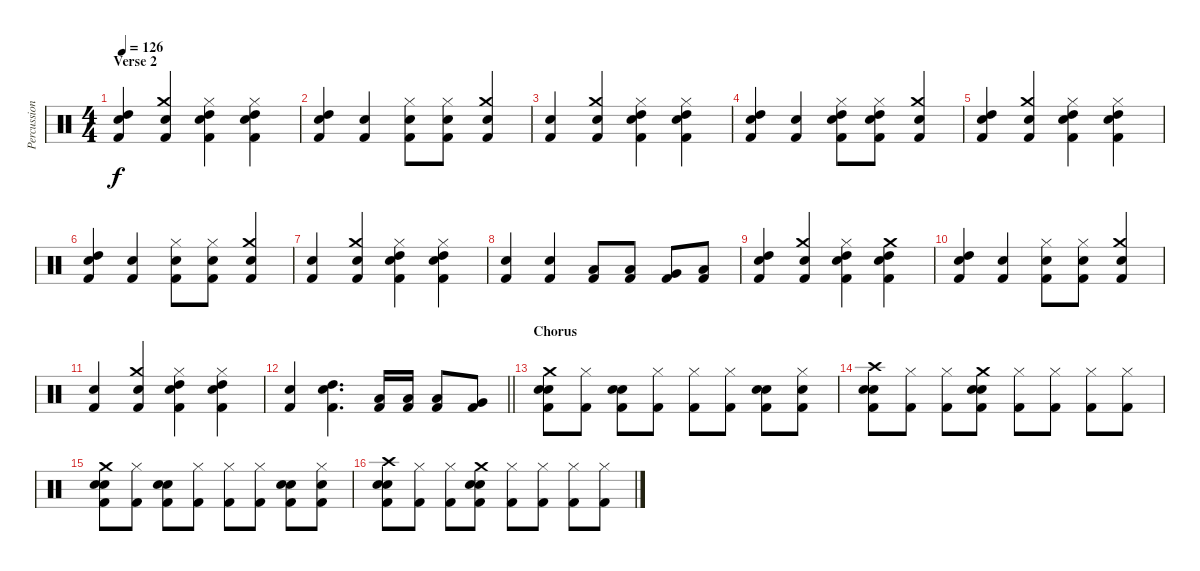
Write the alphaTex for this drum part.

\track ("Percussion" "Percussion") {instrument percussion}
\staff {score}
\articulation defaults
\ts (4 4)
\section ("" "Verse 2")
\tempo 126
\clef neutral
\ks c
("High Tom (hit)" "Electric Snare (hit)" "Kick (hit) 2").4{dy f} ("Crash medium (hit)" "Snare (hit) 2" "Kick (hit) 2").4 ("High Tom (hit)" "Hi-Hat (closed)" "Electric Snare (hit)" "Kick (hit) 2").4 ("High Tom (hit)" "Hi-Hat (closed)" "Snare (hit) 2" "Kick (hit) 2").4 |
("High Tom (hit)" "Electric Snare (hit)" "Kick (hit) 2").4 ("Snare (hit) 2" "Kick (hit) 2").4 ("Hi-Hat (closed)" "Electric Snare (hit)" "Kick (hit) 2").8 ("Hi-Hat (closed)" "Snare (hit) 2" "Kick (hit) 2").8 ("Crash medium (hit)" "Snare (hit) 2" "Kick (hit) 2").4 |
("Electric Snare (hit)" "Kick (hit) 2").4 ("Crash medium (hit)" "Snare (hit) 2" "Kick (hit) 2").4 ("High Tom (hit)" "Hi-Hat (closed)" "Electric Snare (hit)" "Kick (hit) 2").4 ("High Tom (hit)" "Hi-Hat (closed)" "Snare (hit) 2" "Kick (hit) 2").4 |
("High Tom (hit)" "Electric Snare (hit)" "Kick (hit) 2").4 ("Snare (hit) 2" "Kick (hit) 2").4 ("High Tom (hit)" "Hi-Hat (closed)" "Electric Snare (hit)" "Kick (hit) 2").8 ("High Tom (hit)" "Hi-Hat (closed)" "Snare (hit) 2" "Kick (hit) 2").8 ("Crash medium (hit)" "Snare (hit) 2" "Kick (hit) 2").4 |
("High Tom (hit)" "Electric Snare (hit)" "Kick (hit) 2").4 ("Crash medium (hit)" "Snare (hit) 2" "Kick (hit) 2").4 ("High Tom (hit)" "Hi-Hat (closed)" "Electric Snare (hit)" "Kick (hit) 2").4 ("High Tom (hit)" "Hi-Hat (closed)" "Snare (hit) 2" "Kick (hit) 2").4 |
("High Tom (hit)" "Electric Snare (hit)" "Kick (hit) 2").4 ("Snare (hit) 2" "Kick (hit) 2").4 ("Hi-Hat (closed)" "Electric Snare (hit)" "Kick (hit) 2").8 ("Hi-Hat (closed)" "Snare (hit) 2" "Kick (hit) 2").8 ("Crash medium (hit)" "Snare (hit) 2" "Kick (hit) 2").4 |
("Electric Snare (hit)" "Kick (hit) 2").4 ("Crash medium (hit)" "Snare (hit) 2" "Kick (hit) 2").4 ("High Tom (hit)" "Hi-Hat (closed)" "Electric Snare (hit)" "Kick (hit) 2").4 ("High Tom (hit)" "Hi-Hat (closed)" "Snare (hit) 2" "Kick (hit) 2").4 |
("Electric Snare (hit)" "Kick (hit) 2").4 ("Snare (hit) 2" "Kick (hit) 2").4 ("Low Tom (hit)" "Kick (hit) 2").8 ("Low Tom (hit)" "Kick (hit) 2").8 ("Very Low Tom (hit)" "Kick (hit) 2").8 ("Low Floor Tom (hit)" "Kick (hit) 2").8 |
("High Tom (hit)" "Electric Snare (hit)" "Kick (hit) 2").4 ("Crash medium (hit)" "Snare (hit) 2" "Kick (hit) 2").4 ("High Tom (hit)" "Hi-Hat (closed)" "Electric Snare (hit)" "Kick (hit) 2").4 ("High Tom (hit)" "Crash medium (hit)" "Snare (hit) 2" "Kick (hit) 2").4 |
("High Tom (hit)" "Electric Snare (hit)" "Kick (hit) 2").4 ("Snare (hit) 2" "Kick (hit) 2").4 ("Hi-Hat (closed)" "Electric Snare (hit)" "Kick (hit) 2").8 ("Hi-Hat (closed)" "Snare (hit) 2" "Kick (hit) 2").8 ("Crash medium (hit)" "Snare (hit) 2" "Kick (hit) 2").4 |
("Electric Snare (hit)" "Kick (hit) 2").4 ("Crash medium (hit)" "Snare (hit) 2" "Kick (hit) 2").4 ("High Tom (hit)" "Hi-Hat (closed)" "Electric Snare (hit)" "Kick (hit) 2").4 ("High Tom (hit)" "Hi-Hat (closed)" "Snare (hit) 2" "Kick (hit) 2").4 |
\barLineRight lightlight
("Electric Snare (hit)" "Kick (hit) 2").4 ("High Tom (hit)" "Snare (hit) 2" "Kick (hit) 2").4{d} ("Low Tom (hit)" "Kick (hit) 2").16 ("Low Tom (hit)" "Kick (hit) 2").16 ("Low Tom (hit)" "Kick (hit) 2").8 ("Very Low Tom (hit)" "Kick (hit) 2").8 |
\section ("" "Chorus")
("Kick (hit) 2" "Crash medium (hit)" "Snare (hit) 2" "Electric Snare (hit)").8 ("Hi-Hat (closed)" "Kick (hit) 2").8 ("Kick (hit) 2" "Snare (hit) 2" "Electric Snare (hit)").8 ("Hi-Hat (closed)" "Kick (hit) 2").8 ("Hi-Hat (closed)" "Kick (hit) 2").8 ("Hi-Hat (closed)" "Kick (hit) 2").8 ("Kick (hit) 2" "Snare (hit) 2" "Electric Snare (hit)").8 ("Snare (hit) 2" "Hi-Hat (closed)" "Kick (hit) 2").8 |
("Kick (hit) 2" "Crash high (hit)" "Snare (hit) 2" "Electric Snare (hit)").8 ("Hi-Hat (closed)" "Kick (hit) 2").8 ("Hi-Hat (closed)" "Kick (hit) 2").8 ("Kick (hit) 2" "Crash medium (hit)" "Snare (hit) 2" "Electric Snare (hit)").8 ("Hi-Hat (closed)" "Kick (hit) 2").8 ("Hi-Hat (closed)" "Kick (hit) 2").8 ("Hi-Hat (closed)" "Kick (hit) 2").8 ("Hi-Hat (closed)" "Kick (hit) 2").8 |
("Kick (hit) 2" "Crash medium (hit)" "Snare (hit) 2" "Electric Snare (hit)").8 ("Hi-Hat (closed)" "Kick (hit) 2").8 ("Kick (hit) 2" "Snare (hit) 2" "Electric Snare (hit)").8 ("Hi-Hat (closed)" "Kick (hit) 2").8 ("Hi-Hat (closed)" "Kick (hit) 2").8 ("Hi-Hat (closed)" "Kick (hit) 2").8 ("Kick (hit) 2" "Snare (hit) 2" "Electric Snare (hit)").8 ("Snare (hit) 2" "Hi-Hat (closed)" "Kick (hit) 2").8 |
("Kick (hit) 2" "Crash high (hit)" "Snare (hit) 2" "Electric Snare (hit)").8 ("Hi-Hat (closed)" "Kick (hit) 2").8 ("Hi-Hat (closed)" "Kick (hit) 2").8 ("Kick (hit) 2" "Crash medium (hit)" "Snare (hit) 2" "Electric Snare (hit)").8 ("Hi-Hat (closed)" "Kick (hit) 2").8 ("Hi-Hat (closed)" "Kick (hit) 2").8 ("Hi-Hat (closed)" "Kick (hit) 2").8 ("Hi-Hat (closed)" "Kick (hit) 2").8
